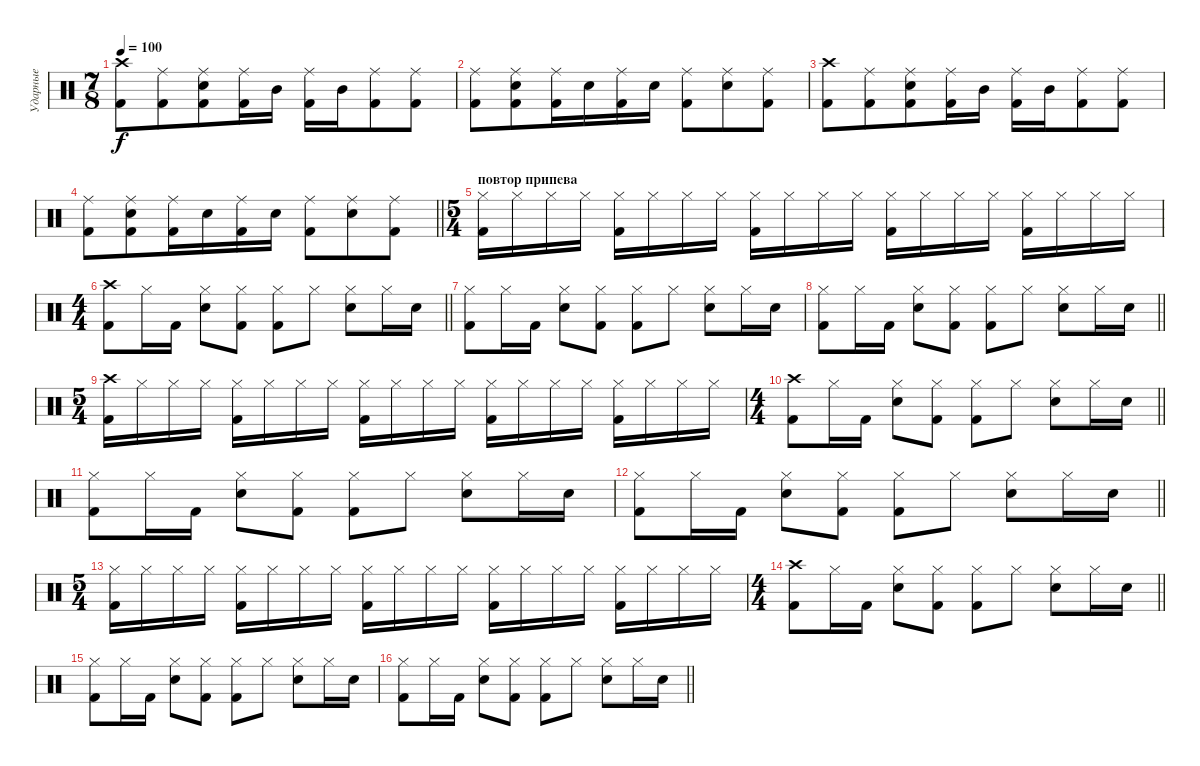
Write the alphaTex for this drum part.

\track ("Ударные" "Ударные") {instrument percussion}
\staff {score}
\articulation defaults
\ts (7 8)
\tempo 100
\clef neutral
\ks c
("Kick (hit) 2" "Crash high (hit)").8{dy f} ("Kick (hit) 2" "Ride (middle)").8 ("Kick (hit) 2" "Ride (middle)" "Snare (hit) 2").8 ("Ride (middle)" "Kick (hit) 2").16 "Mid Tom (hit)".16 ("Ride (middle)" "Kick (hit) 2").16 "Mid Tom (hit)".16 ("Ride (middle)" "Kick (hit) 2").8 ("Kick (hit) 2" "Ride (middle)").8 |
("Kick (hit) 2" "Ride (middle)").8 ("Kick (hit) 2" "Ride (middle)" "Snare (hit) 2").8 ("Ride (middle)" "Kick (hit) 2").16 "Snare (hit) 2".16 ("Ride (middle)" "Kick (hit) 2").16 "Snare (hit) 2".16 ("Ride (middle)" "Kick (hit) 2").8 ("Snare (hit) 2" "Ride (middle)").8 ("Kick (hit) 2" "Ride (middle)").8 |
("Kick (hit) 2" "Crash high (hit)").8 ("Kick (hit) 2" "Ride (middle)").8 ("Kick (hit) 2" "Ride (middle)" "Snare (hit) 2").8 ("Ride (middle)" "Kick (hit) 2").16 "Mid Tom (hit)".16 ("Ride (middle)" "Kick (hit) 2").16 "Mid Tom (hit)".16 ("Ride (middle)" "Kick (hit) 2").8 ("Kick (hit) 2" "Ride (middle)").8 |
\barLineRight lightlight
("Kick (hit) 2" "Ride (middle)").8 ("Kick (hit) 2" "Ride (middle)" "Snare (hit) 2").8 ("Ride (middle)" "Kick (hit) 2").16 "Snare (hit) 2".16 ("Ride (middle)" "Kick (hit) 2").16 "Snare (hit) 2".16 ("Ride (middle)" "Kick (hit) 2").8 ("Snare (hit) 2" "Ride (middle)").8 ("Kick (hit) 2" "Ride (middle)").8 |
\ts (5 4)
\section ("" "повтор припева")
("Hi-Hat (closed)" "Kick (hit) 2").16 "Hi-Hat (closed)".16 "Hi-Hat (closed)".16 "Hi-Hat (closed)".16 ("Hi-Hat (closed)" "Kick (hit) 2").16 "Hi-Hat (closed)".16 "Hi-Hat (closed)".16 "Hi-Hat (closed)".16 ("Hi-Hat (closed)" "Kick (hit) 2").16 "Hi-Hat (closed)".16 "Hi-Hat (closed)".16 "Hi-Hat (closed)".16 ("Hi-Hat (closed)" "Kick (hit) 2").16 "Hi-Hat (closed)".16 "Hi-Hat (closed)".16 "Hi-Hat (closed)".16 ("Hi-Hat (closed)" "Kick (hit) 2").16 "Hi-Hat (closed)".16 "Hi-Hat (closed)".16 "Hi-Hat (closed)".16 |
\ts (4 4)
\barLineRight lightlight
("Kick (hit) 2" "Crash high (hit)").8 "Hi-Hat (closed)".16 "Kick (hit) 2".16 ("Snare (hit) 2" "Hi-Hat (closed)").8 ("Kick (hit) 2" "Hi-Hat (closed)").8 ("Kick (hit) 2" "Hi-Hat (closed)").8 "Hi-Hat (closed)".8 ("Snare (hit) 2" "Hi-Hat (closed)").8 "Hi-Hat (closed)".16 "Snare (hit) 2".16 |
("Kick (hit) 2" "Hi-Hat (closed)").8 "Hi-Hat (closed)".16 "Kick (hit) 2".16 ("Snare (hit) 2" "Hi-Hat (closed)").8 ("Kick (hit) 2" "Hi-Hat (closed)").8 ("Kick (hit) 2" "Hi-Hat (closed)").8 "Hi-Hat (closed)".8 ("Snare (hit) 2" "Hi-Hat (closed)").8 "Hi-Hat (closed)".16 "Snare (hit) 2".16 |
\barLineRight lightlight
("Kick (hit) 2" "Hi-Hat (closed)").8 "Hi-Hat (closed)".16 "Kick (hit) 2".16 ("Snare (hit) 2" "Hi-Hat (closed)").8 ("Kick (hit) 2" "Hi-Hat (closed)").8 ("Kick (hit) 2" "Hi-Hat (closed)").8 "Hi-Hat (closed)".8 ("Snare (hit) 2" "Hi-Hat (closed)").8 "Hi-Hat (closed)".16 "Snare (hit) 2".16 |
\ts (5 4)
("Crash high (hit)" "Kick (hit) 2").16 "Hi-Hat (closed)".16 "Hi-Hat (closed)".16 "Hi-Hat (closed)".16 ("Hi-Hat (closed)" "Kick (hit) 2").16 "Hi-Hat (closed)".16 "Hi-Hat (closed)".16 "Hi-Hat (closed)".16 ("Hi-Hat (closed)" "Kick (hit) 2").16 "Hi-Hat (closed)".16 "Hi-Hat (closed)".16 "Hi-Hat (closed)".16 ("Hi-Hat (closed)" "Kick (hit) 2").16 "Hi-Hat (closed)".16 "Hi-Hat (closed)".16 "Hi-Hat (closed)".16 ("Hi-Hat (closed)" "Kick (hit) 2").16 "Hi-Hat (closed)".16 "Hi-Hat (closed)".16 "Hi-Hat (closed)".16 |
\ts (4 4)
\barLineRight lightlight
("Kick (hit) 2" "Crash high (hit)").8 "Hi-Hat (closed)".16 "Kick (hit) 2".16 ("Snare (hit) 2" "Hi-Hat (closed)").8 ("Kick (hit) 2" "Hi-Hat (closed)").8 ("Kick (hit) 2" "Hi-Hat (closed)").8 "Hi-Hat (closed)".8 ("Snare (hit) 2" "Hi-Hat (closed)").8 "Hi-Hat (closed)".16 "Snare (hit) 2".16 |
("Kick (hit) 2" "Hi-Hat (closed)").8 "Hi-Hat (closed)".16 "Kick (hit) 2".16 ("Snare (hit) 2" "Hi-Hat (closed)").8 ("Kick (hit) 2" "Hi-Hat (closed)").8 ("Kick (hit) 2" "Hi-Hat (closed)").8 "Hi-Hat (closed)".8 ("Snare (hit) 2" "Hi-Hat (closed)").8 "Hi-Hat (closed)".16 "Snare (hit) 2".16 |
\barLineRight lightlight
("Kick (hit) 2" "Hi-Hat (closed)").8 "Hi-Hat (closed)".16 "Kick (hit) 2".16 ("Snare (hit) 2" "Hi-Hat (closed)").8 ("Kick (hit) 2" "Hi-Hat (closed)").8 ("Kick (hit) 2" "Hi-Hat (closed)").8 "Hi-Hat (closed)".8 ("Snare (hit) 2" "Hi-Hat (closed)").8 "Hi-Hat (closed)".16 "Snare (hit) 2".16 |
\ts (5 4)
("Hi-Hat (closed)" "Kick (hit) 2").16 "Hi-Hat (closed)".16 "Hi-Hat (closed)".16 "Hi-Hat (closed)".16 ("Hi-Hat (closed)" "Kick (hit) 2").16 "Hi-Hat (closed)".16 "Hi-Hat (closed)".16 "Hi-Hat (closed)".16 ("Hi-Hat (closed)" "Kick (hit) 2").16 "Hi-Hat (closed)".16 "Hi-Hat (closed)".16 "Hi-Hat (closed)".16 ("Hi-Hat (closed)" "Kick (hit) 2").16 "Hi-Hat (closed)".16 "Hi-Hat (closed)".16 "Hi-Hat (closed)".16 ("Hi-Hat (closed)" "Kick (hit) 2").16 "Hi-Hat (closed)".16 "Hi-Hat (closed)".16 "Hi-Hat (closed)".16 |
\ts (4 4)
\barLineRight lightlight
("Kick (hit) 2" "Crash high (hit)").8 "Hi-Hat (closed)".16 "Kick (hit) 2".16 ("Snare (hit) 2" "Hi-Hat (closed)").8 ("Kick (hit) 2" "Hi-Hat (closed)").8 ("Kick (hit) 2" "Hi-Hat (closed)").8 "Hi-Hat (closed)".8 ("Snare (hit) 2" "Hi-Hat (closed)").8 "Hi-Hat (closed)".16 "Snare (hit) 2".16 |
("Kick (hit) 2" "Hi-Hat (closed)").8 "Hi-Hat (closed)".16 "Kick (hit) 2".16 ("Snare (hit) 2" "Hi-Hat (closed)").8 ("Kick (hit) 2" "Hi-Hat (closed)").8 ("Kick (hit) 2" "Hi-Hat (closed)").8 "Hi-Hat (closed)".8 ("Snare (hit) 2" "Hi-Hat (closed)").8 "Hi-Hat (closed)".16 "Snare (hit) 2".16 |
\barLineRight lightlight
("Kick (hit) 2" "Hi-Hat (closed)").8 "Hi-Hat (closed)".16 "Kick (hit) 2".16 ("Snare (hit) 2" "Hi-Hat (closed)").8 ("Kick (hit) 2" "Hi-Hat (closed)").8 ("Kick (hit) 2" "Hi-Hat (closed)").8 "Hi-Hat (closed)".8 ("Snare (hit) 2" "Hi-Hat (closed)").8 "Hi-Hat (closed)".16 "Snare (hit) 2".16
